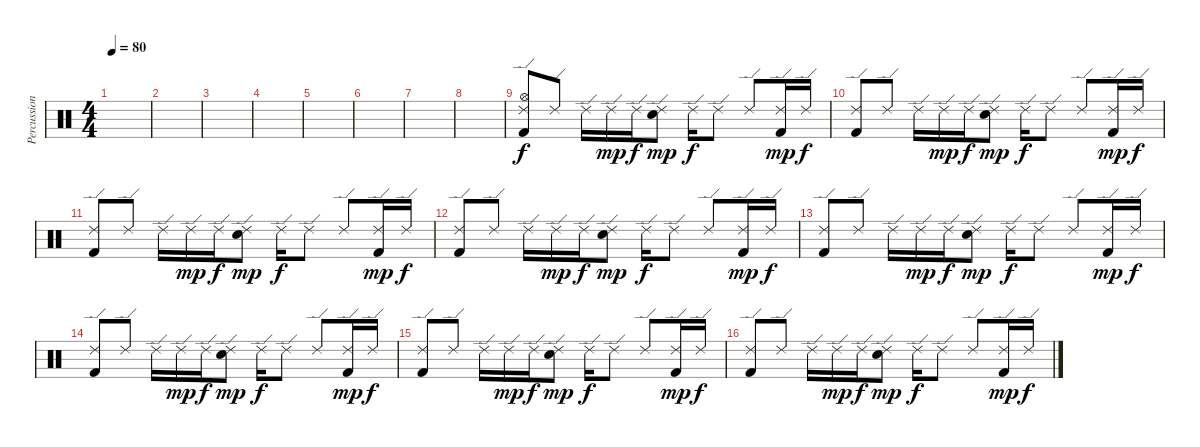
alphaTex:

\track ("Percussion" "Percussion") {instrument percussion}
\staff {score}
\articulation defaults
\ts (4 4)
\tempo 80
\clef neutral
\ks c
|
|
|
|
|
|
|
|
("Ride (edge) 2" "Hi-Hat (open)" "Kick (hit) 2").8 "Ride (edge) 2".8 "Ride (edge) 2".16 "Ride (edge) 2".16{dy mp} "Ride (edge) 2".16{dy f} ("Ride (edge) 2" "Electric Snare (hit)").8{dy mp} "Ride (edge) 2".16{dy f} "Ride (edge) 2".8 "Ride (edge) 2".8 ("Ride (edge) 2" "Kick (hit) 2").16{dy mp} "Ride (edge) 2".16{dy f} |
("Ride (edge) 2" "Kick (hit) 2").8 "Ride (edge) 2".8 "Ride (edge) 2".16 "Ride (edge) 2".16{dy mp} "Ride (edge) 2".16{dy f} ("Ride (edge) 2" "Electric Snare (hit)").8{dy mp} "Ride (edge) 2".16{dy f} "Ride (edge) 2".8 "Ride (edge) 2".8 ("Ride (edge) 2" "Kick (hit) 2").16{dy mp} "Ride (edge) 2".16{dy f} |
("Ride (edge) 2" "Kick (hit) 2").8 "Ride (edge) 2".8 "Ride (edge) 2".16 "Ride (edge) 2".16{dy mp} "Ride (edge) 2".16{dy f} ("Ride (edge) 2" "Electric Snare (hit)").8{dy mp} "Ride (edge) 2".16{dy f} "Ride (edge) 2".8 "Ride (edge) 2".8 ("Ride (edge) 2" "Kick (hit) 2").16{dy mp} "Ride (edge) 2".16{dy f} |
("Ride (edge) 2" "Kick (hit) 2").8 "Ride (edge) 2".8 "Ride (edge) 2".16 "Ride (edge) 2".16{dy mp} "Ride (edge) 2".16{dy f} ("Ride (edge) 2" "Electric Snare (hit)").8{dy mp} "Ride (edge) 2".16{dy f} "Ride (edge) 2".8 "Ride (edge) 2".8 ("Ride (edge) 2" "Kick (hit) 2").16{dy mp} "Ride (edge) 2".16{dy f} |
("Ride (edge) 2" "Kick (hit) 2").8 "Ride (edge) 2".8 "Ride (edge) 2".16 "Ride (edge) 2".16{dy mp} "Ride (edge) 2".16{dy f} ("Ride (edge) 2" "Electric Snare (hit)").8{dy mp} "Ride (edge) 2".16{dy f} "Ride (edge) 2".8 "Ride (edge) 2".8 ("Ride (edge) 2" "Kick (hit) 2").16{dy mp} "Ride (edge) 2".16{dy f} |
("Ride (edge) 2" "Kick (hit) 2").8 "Ride (edge) 2".8 "Ride (edge) 2".16 "Ride (edge) 2".16{dy mp} "Ride (edge) 2".16{dy f} ("Ride (edge) 2" "Electric Snare (hit)").8{dy mp} "Ride (edge) 2".16{dy f} "Ride (edge) 2".8 "Ride (edge) 2".8 ("Ride (edge) 2" "Kick (hit) 2").16{dy mp} "Ride (edge) 2".16{dy f} |
("Ride (edge) 2" "Kick (hit) 2").8 "Ride (edge) 2".8 "Ride (edge) 2".16 "Ride (edge) 2".16{dy mp} "Ride (edge) 2".16{dy f} ("Ride (edge) 2" "Electric Snare (hit)").8{dy mp} "Ride (edge) 2".16{dy f} "Ride (edge) 2".8 "Ride (edge) 2".8 ("Ride (edge) 2" "Kick (hit) 2").16{dy mp} "Ride (edge) 2".16{dy f} |
("Ride (edge) 2" "Kick (hit) 2").8 "Ride (edge) 2".8 "Ride (edge) 2".16 "Ride (edge) 2".16{dy mp} "Ride (edge) 2".16{dy f} ("Ride (edge) 2" "Electric Snare (hit)").8{dy mp} "Ride (edge) 2".16{dy f} "Ride (edge) 2".8 "Ride (edge) 2".8 ("Ride (edge) 2" "Kick (hit) 2").16{dy mp} "Ride (edge) 2".16{dy f}
